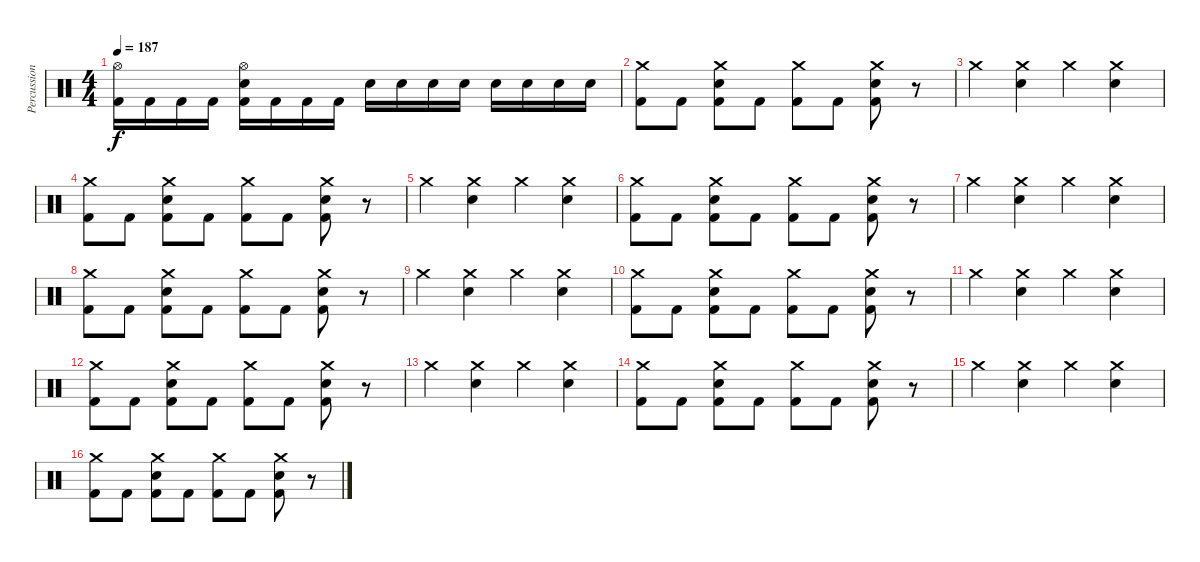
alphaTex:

\track ("Percussion" "Percussion") {instrument percussion}
\staff {score}
\articulation defaults
\ts (4 4)
\tempo 187
\clef neutral
\ks c
("Hi-Hat (open)" "Kick (hit) 2").16{dy f} "Kick (hit) 2".16 "Kick (hit) 2".16 "Kick (hit) 2".16 ("Hi-Hat (open)" "Electric Snare (hit)" "Kick (hit) 2").16 "Kick (hit) 2".16 "Kick (hit) 2".16 "Kick (hit) 2".16 "Electric Snare (hit)".16 "Electric Snare (hit)".16 "Electric Snare (hit)".16 "Electric Snare (hit)".16 "Electric Snare (hit)".16 "Electric Snare (hit)".16 "Electric Snare (hit)".16 "Electric Snare (hit)".16 |
("Crash medium (hit)" "Kick (hit) 2").8 "Kick (hit) 2".8 ("Crash medium (hit)" "Electric Snare (hit)" "Kick (hit) 2").8 "Kick (hit) 2".8 ("Crash medium (hit)" "Kick (hit) 2").8 "Kick (hit) 2".8 ("Crash medium (hit)" "Electric Snare (hit)" "Kick (hit) 2").8 r.8 |
"Crash medium (hit)".4 ("Crash medium (hit)" "Electric Snare (hit)").4 "Crash medium (hit)".4 ("Crash medium (hit)" "Electric Snare (hit)").4 |
("Crash medium (hit)" "Kick (hit) 2").8 "Kick (hit) 2".8 ("Crash medium (hit)" "Electric Snare (hit)" "Kick (hit) 2").8 "Kick (hit) 2".8 ("Crash medium (hit)" "Kick (hit) 2").8 "Kick (hit) 2".8 ("Crash medium (hit)" "Electric Snare (hit)" "Kick (hit) 2").8 r.8 |
"Crash medium (hit)".4 ("Crash medium (hit)" "Electric Snare (hit)").4 "Crash medium (hit)".4 ("Crash medium (hit)" "Electric Snare (hit)").4 |
("Crash medium (hit)" "Kick (hit) 2").8 "Kick (hit) 2".8 ("Crash medium (hit)" "Electric Snare (hit)" "Kick (hit) 2").8 "Kick (hit) 2".8 ("Crash medium (hit)" "Kick (hit) 2").8 "Kick (hit) 2".8 ("Crash medium (hit)" "Electric Snare (hit)" "Kick (hit) 2").8 r.8 |
"Crash medium (hit)".4 ("Crash medium (hit)" "Electric Snare (hit)").4 "Crash medium (hit)".4 ("Crash medium (hit)" "Electric Snare (hit)").4 |
("Crash medium (hit)" "Kick (hit) 2").8 "Kick (hit) 2".8 ("Crash medium (hit)" "Electric Snare (hit)" "Kick (hit) 2").8 "Kick (hit) 2".8 ("Crash medium (hit)" "Kick (hit) 2").8 "Kick (hit) 2".8 ("Crash medium (hit)" "Electric Snare (hit)" "Kick (hit) 2").8 r.8 |
"Crash medium (hit)".4 ("Crash medium (hit)" "Electric Snare (hit)").4 "Crash medium (hit)".4 ("Crash medium (hit)" "Electric Snare (hit)").4 |
("Crash medium (hit)" "Kick (hit) 2").8 "Kick (hit) 2".8 ("Crash medium (hit)" "Electric Snare (hit)" "Kick (hit) 2").8 "Kick (hit) 2".8 ("Crash medium (hit)" "Kick (hit) 2").8 "Kick (hit) 2".8 ("Crash medium (hit)" "Electric Snare (hit)" "Kick (hit) 2").8 r.8 |
"Crash medium (hit)".4 ("Crash medium (hit)" "Electric Snare (hit)").4 "Crash medium (hit)".4 ("Crash medium (hit)" "Electric Snare (hit)").4 |
("Crash medium (hit)" "Kick (hit) 2").8 "Kick (hit) 2".8 ("Crash medium (hit)" "Electric Snare (hit)" "Kick (hit) 2").8 "Kick (hit) 2".8 ("Crash medium (hit)" "Kick (hit) 2").8 "Kick (hit) 2".8 ("Crash medium (hit)" "Electric Snare (hit)" "Kick (hit) 2").8 r.8 |
"Crash medium (hit)".4 ("Crash medium (hit)" "Electric Snare (hit)").4 "Crash medium (hit)".4 ("Crash medium (hit)" "Electric Snare (hit)").4 |
("Crash medium (hit)" "Kick (hit) 2").8 "Kick (hit) 2".8 ("Crash medium (hit)" "Electric Snare (hit)" "Kick (hit) 2").8 "Kick (hit) 2".8 ("Crash medium (hit)" "Kick (hit) 2").8 "Kick (hit) 2".8 ("Crash medium (hit)" "Electric Snare (hit)" "Kick (hit) 2").8 r.8 |
"Crash medium (hit)".4 ("Crash medium (hit)" "Electric Snare (hit)").4 "Crash medium (hit)".4 ("Crash medium (hit)" "Electric Snare (hit)").4 |
("Crash medium (hit)" "Kick (hit) 2").8 "Kick (hit) 2".8 ("Crash medium (hit)" "Electric Snare (hit)" "Kick (hit) 2").8 "Kick (hit) 2".8 ("Crash medium (hit)" "Kick (hit) 2").8 "Kick (hit) 2".8 ("Crash medium (hit)" "Electric Snare (hit)" "Kick (hit) 2").8 r.8
